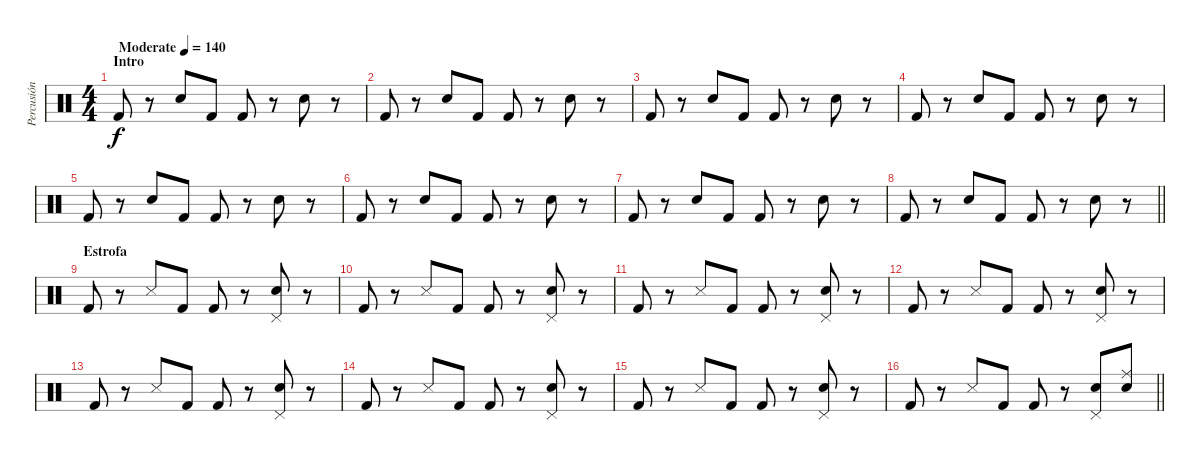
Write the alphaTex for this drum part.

\track ("Percusión" "Percusión") {instrument percussion}
\staff {score}
\articulation defaults
\ts (4 4)
\section ("" "Intro")
\tempo (140 "Moderate")
\clef neutral
\ks c "Kick (hit) 2".8{dy f}
r.8 "Snare (hit) 2".8 "Kick (hit) 2".8 "Kick (hit) 2".8 r.8 "Snare (hit) 2".8 r.8 |
"Kick (hit) 2".8 r.8 "Snare (hit) 2".8 "Kick (hit) 2".8 "Kick (hit) 2".8 r.8 "Snare (hit) 2".8 r.8 |
"Kick (hit) 2".8 r.8 "Snare (hit) 2".8 "Kick (hit) 2".8 "Kick (hit) 2".8 r.8 "Snare (hit) 2".8 r.8 |
"Kick (hit) 2".8 r.8 "Snare (hit) 2".8 "Kick (hit) 2".8 "Kick (hit) 2".8 r.8 "Snare (hit) 2".8 r.8 |
"Kick (hit) 2".8 r.8 "Snare (hit) 2".8 "Kick (hit) 2".8 "Kick (hit) 2".8 r.8 "Snare (hit) 2".8 r.8 |
"Kick (hit) 2".8 r.8 "Snare (hit) 2".8 "Kick (hit) 2".8 "Kick (hit) 2".8 r.8 "Snare (hit) 2".8 r.8 |
"Kick (hit) 2".8 r.8 "Snare (hit) 2".8 "Kick (hit) 2".8 "Kick (hit) 2".8 r.8 "Snare (hit) 2".8 r.8 |
\barLineRight lightlight "Kick (hit) 2".8
r.8 "Snare (hit) 2".8 "Kick (hit) 2".8 "Kick (hit) 2".8 r.8 "Snare (hit) 2".8 r.8 |
\section ("" "Estrofa")
"Kick (hit) 2".8 r.8 "Snare (side stick) 3".8 "Kick (hit) 2".8 "Kick (hit) 2".8 r.8 ("Pedal Hi-Hat (hit)" "Snare (hit) 2").8 r.8 |
"Kick (hit) 2".8 r.8 "Snare (side stick) 3".8 "Kick (hit) 2".8 "Kick (hit) 2".8 r.8 ("Pedal Hi-Hat (hit)" "Snare (hit) 2").8 r.8 |
"Kick (hit) 2".8 r.8 "Snare (side stick) 3".8 "Kick (hit) 2".8 "Kick (hit) 2".8 r.8 ("Pedal Hi-Hat (hit)" "Snare (hit) 2").8 r.8 |
"Kick (hit) 2".8 r.8 "Snare (side stick) 3".8 "Kick (hit) 2".8 "Kick (hit) 2".8 r.8 ("Pedal Hi-Hat (hit)" "Snare (hit) 2").8 r.8 |
"Kick (hit) 2".8 r.8 "Snare (side stick) 3".8 "Kick (hit) 2".8 "Kick (hit) 2".8 r.8 ("Pedal Hi-Hat (hit)" "Snare (hit) 2").8 r.8 |
"Kick (hit) 2".8 r.8 "Snare (side stick) 3".8 "Kick (hit) 2".8 "Kick (hit) 2".8 r.8 ("Pedal Hi-Hat (hit)" "Snare (hit) 2").8 r.8 |
"Kick (hit) 2".8 r.8 "Snare (side stick) 3".8 "Kick (hit) 2".8 "Kick (hit) 2".8 r.8 ("Pedal Hi-Hat (hit)" "Snare (hit) 2").8 r.8 |
\barLineRight lightlight "Kick (hit) 2".8
r.8 "Snare (side stick) 3".8 "Kick (hit) 2".8 "Kick (hit) 2".8 r.8 ("Pedal Hi-Hat (hit)" "Snare (hit) 2").8 ("Ride (middle)" "Snare (hit) 2").8
